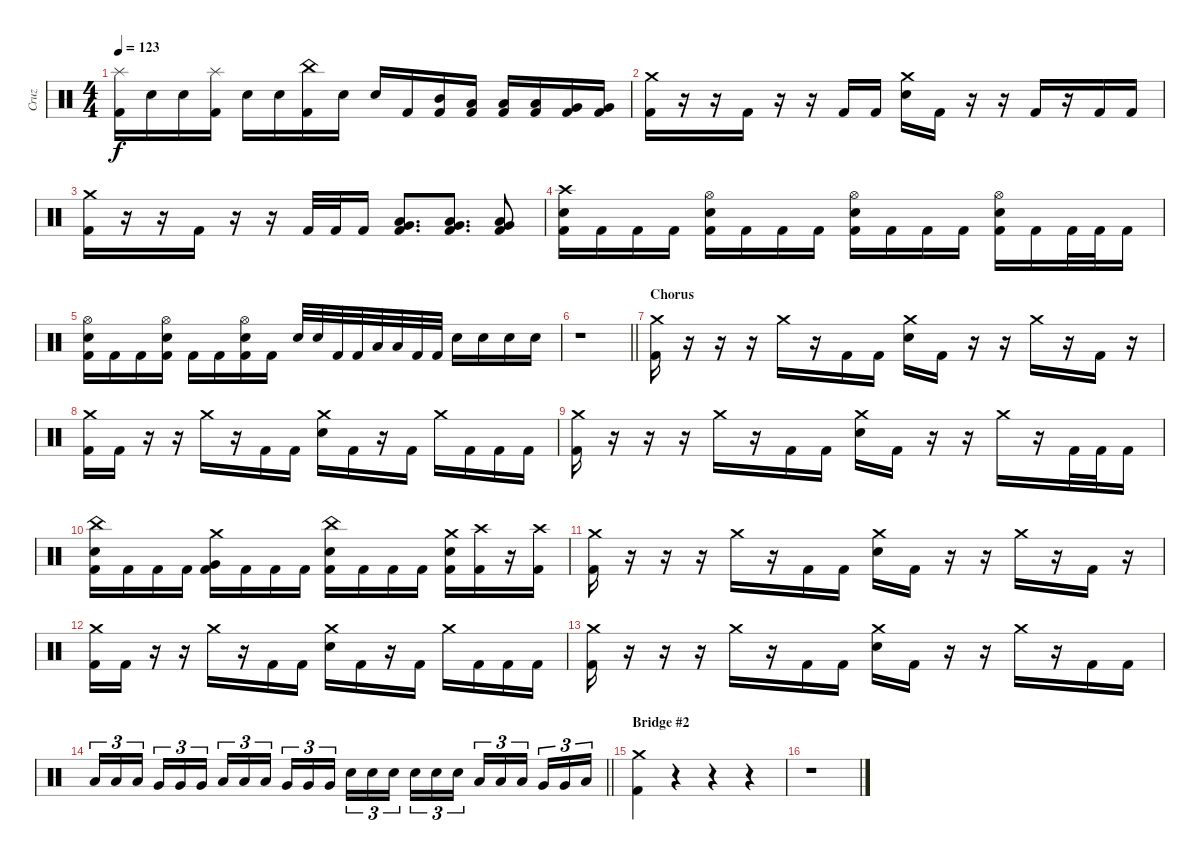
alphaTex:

\track ("Cruz" "Cruz") {instrument percussion}
\staff {score}
\articulation defaults
\ts (4 4)
\tempo 123
\clef neutral
\ks c
("Splash (hit)" "Kick (hit) 2").16{dy f} "Snare (hit) 2".16 "Snare (hit) 2".16 ("Splash (hit)" "Kick (hit) 2").16 "Snare (hit) 2".16 "Snare (hit) 2".16 ("China (hit)" "Kick (hit) 2").16 "Snare (hit) 2".16 "Snare (hit) 2".16 "Kick (hit) 2".16 ("Mid Tom (hit)" "Kick (hit) 2").16 ("Low Tom (hit)" "Kick (hit) 2").16 ("Low Tom (hit)" "Kick (hit) 2").16 ("Low Tom (hit)" "Kick (hit) 2").16 ("Very Low Tom (hit)" "Kick (hit) 2").16 ("Very Low Tom (hit)" "Kick (hit) 2").16 |
("Crash medium (hit)" "Kick (hit) 2").16 r.16 r.16 "Kick (hit) 2".16 r.16 r.16 "Kick (hit) 2".16 "Kick (hit) 2".16 ("Crash medium (hit)" "Snare (hit) 2").16 "Kick (hit) 2".16 r.16 r.16 "Kick (hit) 2".16 r.16 "Kick (hit) 2".16 "Kick (hit) 2".16 |
("Crash medium (hit)" "Kick (hit) 2").16 r.16 r.16 "Kick (hit) 2".16 r.16 r.16 "Kick (hit) 2".32 "Kick (hit) 2".32 "Kick (hit) 2".16 ("Very Low Tom (hit)" "Low Floor Tom (hit)" "Kick (hit) 2").8{d} ("Very Low Tom (hit)" "Low Floor Tom (hit)" "Kick (hit) 2").8{d} ("Very Low Tom (hit)" "Low Floor Tom (hit)" "Kick (hit) 2").8 |
("Crash high (hit)" "Snare (hit) 2" "Kick (hit) 2").16 "Kick (hit) 2".16 "Kick (hit) 2".16 "Kick (hit) 2".16 ("Hi-Hat (open)" "Snare (hit) 2" "Kick (hit) 2").16 "Kick (hit) 2".16 "Kick (hit) 2".16 "Kick (hit) 2".16 ("Hi-Hat (open)" "Snare (hit) 2" "Kick (hit) 2").16 "Kick (hit) 2".16 "Kick (hit) 2".16 "Kick (hit) 2".16 ("Hi-Hat (open)" "Snare (hit) 2" "Kick (hit) 2").16 "Kick (hit) 2".16 "Kick (hit) 2".32 "Kick (hit) 2".32 "Kick (hit) 2".16 |
("Hi-Hat (open)" "Snare (hit) 2" "Kick (hit) 2").16 "Kick (hit) 2".16 "Kick (hit) 2".16 ("Hi-Hat (open)" "Snare (hit) 2" "Kick (hit) 2").16 "Kick (hit) 2".16 "Kick (hit) 2".16 ("Hi-Hat (open)" "Snare (hit) 2" "Kick (hit) 2").16 "Kick (hit) 2".16 "Snare (hit) 2".32 "Snare (hit) 2".32 "Kick (hit) 2".32 "Kick (hit) 2".32 "Low Tom (hit)".32 "Low Tom (hit)".32 "Kick (hit) 2".32 "Kick (hit) 2".32 "Snare (hit) 2".16 "Snare (hit) 2".16 "Snare (hit) 2".16 "Snare (hit) 2".16 |
\barLineRight lightlight
r.1 |
\section ("" "Chorus")
("Crash medium (hit)" "Kick (hit) 2").16 r.16 r.16 r.16 "Crash medium (hit)".16 r.16 "Kick (hit) 2".16 "Kick (hit) 2".16 ("Crash medium (hit)" "Snare (hit) 2").16 "Kick (hit) 2".16 r.16 r.16 "Crash medium (hit)".16 r.16 "Kick (hit) 2".16 r.16 |
("Crash medium (hit)" "Kick (hit) 2").16 "Kick (hit) 2".16 r.16 r.16 "Crash medium (hit)".16 r.16 "Kick (hit) 2".16 "Kick (hit) 2".16 ("Crash medium (hit)" "Snare (hit) 2").16 "Kick (hit) 2".16 r.16 "Kick (hit) 2".16 "Crash medium (hit)".16 "Kick (hit) 2".16 "Kick (hit) 2".16 "Kick (hit) 2".16 |
("Crash medium (hit)" "Kick (hit) 2").16 r.16 r.16 r.16 "Crash medium (hit)".16 r.16 "Kick (hit) 2".16 "Kick (hit) 2".16 ("Crash medium (hit)" "Snare (hit) 2").16 "Kick (hit) 2".16 r.16 r.16 "Crash medium (hit)".16 r.16 "Kick (hit) 2".32 "Kick (hit) 2".32 "Kick (hit) 2".16 |
("China (hit)" "Snare (hit) 2" "Kick (hit) 2").16 "Kick (hit) 2".16 "Kick (hit) 2".16 "Kick (hit) 2".16 ("Crash medium (hit)" "Very Low Tom (hit)" "Kick (hit) 2").16 "Kick (hit) 2".16 "Kick (hit) 2".16 "Kick (hit) 2".16 ("China (hit)" "Snare (hit) 2" "Kick (hit) 2").16 "Kick (hit) 2".16 "Kick (hit) 2".16 "Kick (hit) 2".16 ("Crash medium (hit)" "Snare (hit) 2" "Kick (hit) 2").16 ("Crash high (hit)" "Kick (hit) 2").16 r.16 ("Crash high (hit)" "Kick (hit) 2").16 |
("Crash medium (hit)" "Kick (hit) 2").16 r.16 r.16 r.16 "Crash medium (hit)".16 r.16 "Kick (hit) 2".16 "Kick (hit) 2".16 ("Crash medium (hit)" "Snare (hit) 2").16 "Kick (hit) 2".16 r.16 r.16 "Crash medium (hit)".16 r.16 "Kick (hit) 2".16 r.16 |
("Crash medium (hit)" "Kick (hit) 2").16 "Kick (hit) 2".16 r.16 r.16 "Crash medium (hit)".16 r.16 "Kick (hit) 2".16 "Kick (hit) 2".16 ("Crash medium (hit)" "Snare (hit) 2").16 "Kick (hit) 2".16 r.16 "Kick (hit) 2".16 "Crash medium (hit)".16 "Kick (hit) 2".16 "Kick (hit) 2".16 "Kick (hit) 2".16 |
("Crash medium (hit)" "Kick (hit) 2").16 r.16 r.16 r.16 "Crash medium (hit)".16 r.16 "Kick (hit) 2".16 "Kick (hit) 2".16 ("Crash medium (hit)" "Snare (hit) 2").16 "Kick (hit) 2".16 r.16 r.16 "Crash medium (hit)".16 r.16 "Kick (hit) 2".16 "Kick (hit) 2".16 |
\barLineRight lightlight "Low Floor Tom (hit)".16{tu (3 2)} "Low Floor Tom (hit)".16{tu (3 2)} "Low Floor Tom (hit)".16{tu (3 2) beam splitsecondary} "Very Low Tom (hit)".16{tu (3 2)} "Very Low Tom (hit)".16{tu (3 2)} "Very Low Tom (hit)".16{tu (3 2)} "Low Tom (hit)".16{tu (3 2)} "Low Tom (hit)".16{tu (3 2)} "Low Tom (hit)".16{tu (3 2) beam splitsecondary} "Very Low Tom (hit)".16{tu (3 2)} "Very Low Tom (hit)".16{tu (3 2)} "Very Low Tom (hit)".16{tu (3 2)} "Snare (hit) 2".16{tu (3 2)} "Snare (hit) 2".16{tu (3 2)} "Snare (hit) 2".16{tu (3 2) beam splitsecondary} "Snare (hit) 2".16{tu (3 2)} "Snare (hit) 2".16{tu (3 2)} "Snare (hit) 2".16{tu (3 2)} "Low Tom (hit)".16{tu (3 2)} "Low Tom (hit)".16{tu (3 2)} "Low Tom (hit)".16{tu (3 2) beam splitsecondary} "Very Low Tom (hit)".16{tu (3 2)} "Very Low Tom (hit)".16{tu (3 2)} "Low Floor Tom (hit)".16{tu (3 2)}
|
\section ("" "Bridge #2")
("Crash medium (hit)" "Kick (hit) 2").4 r.4 r.4 r.4 |
r.1
